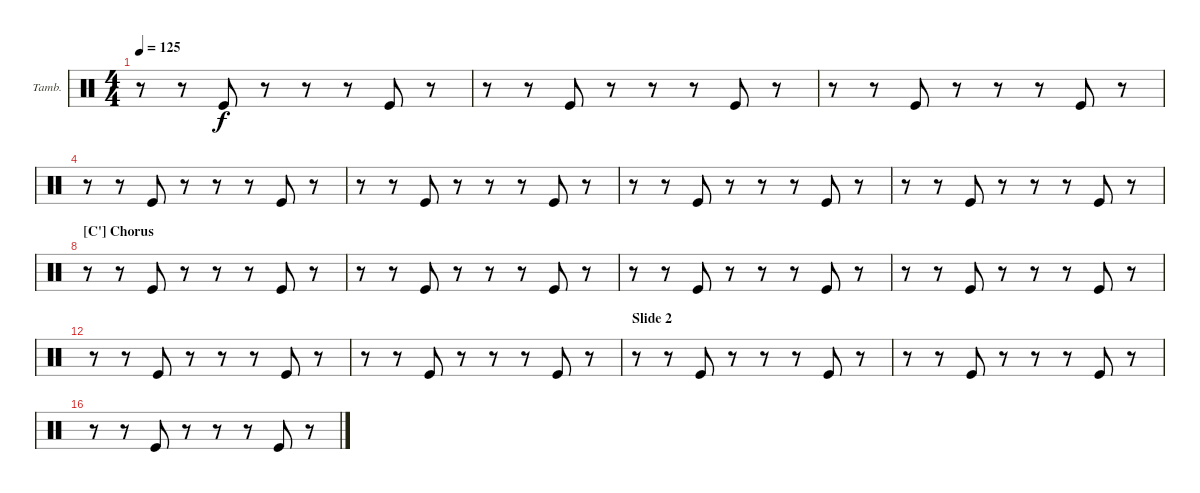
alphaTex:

\bracketExtendMode nobrackets
\firstSystemTrackNameOrientation horizontal
\otherSystemsTrackNameOrientation horizontal
\defaultBarNumberDisplay FirstOfSystem
\track ("Tambourine" "Tamb.") {instrument percussion}
\staff {score}
\articulation defaults
\ts (4 4)
\tempo 125
\clef neutral
\ks c
r.8{dy f} r.8 "Kick (hit)".8 r.8 r.8 r.8 "Kick (hit)".8 r.8 |
r.8 r.8 "Kick (hit)".8 r.8 r.8 r.8 "Kick (hit)".8 r.8 |
r.8 r.8 "Kick (hit)".8 r.8 r.8 r.8 "Kick (hit)".8 r.8 |
r.8 r.8 "Kick (hit)".8 r.8 r.8 r.8 "Kick (hit)".8 r.8 |
r.8 r.8 "Kick (hit)".8 r.8 r.8 r.8 "Kick (hit)".8 r.8 |
r.8 r.8 "Kick (hit)".8 r.8 r.8 r.8 "Kick (hit)".8 r.8 |
r.8 r.8 "Kick (hit)".8 r.8 r.8 r.8 "Kick (hit)".8 r.8 |
\section ("C'" "Chorus")
r.8 r.8 "Kick (hit)".8 r.8 r.8 r.8 "Kick (hit)".8 r.8 |
r.8 r.8 "Kick (hit)".8 r.8 r.8 r.8 "Kick (hit)".8 r.8 |
r.8 r.8 "Kick (hit)".8 r.8 r.8 r.8 "Kick (hit)".8 r.8 |
r.8 r.8 "Kick (hit)".8 r.8 r.8 r.8 "Kick (hit)".8 r.8 |
r.8 r.8 "Kick (hit)".8 r.8 r.8 r.8 "Kick (hit)".8 r.8 |
r.8 r.8 "Kick (hit)".8 r.8 r.8 r.8 "Kick (hit)".8 r.8 |
\section ("" "Slide 2")
r.8 r.8 "Kick (hit)".8 r.8 r.8 r.8 "Kick (hit)".8 r.8 |
r.8 r.8 "Kick (hit)".8 r.8 r.8 r.8 "Kick (hit)".8 r.8 |
r.8 r.8 "Kick (hit)".8 r.8 r.8 r.8 "Kick (hit)".8 r.8
